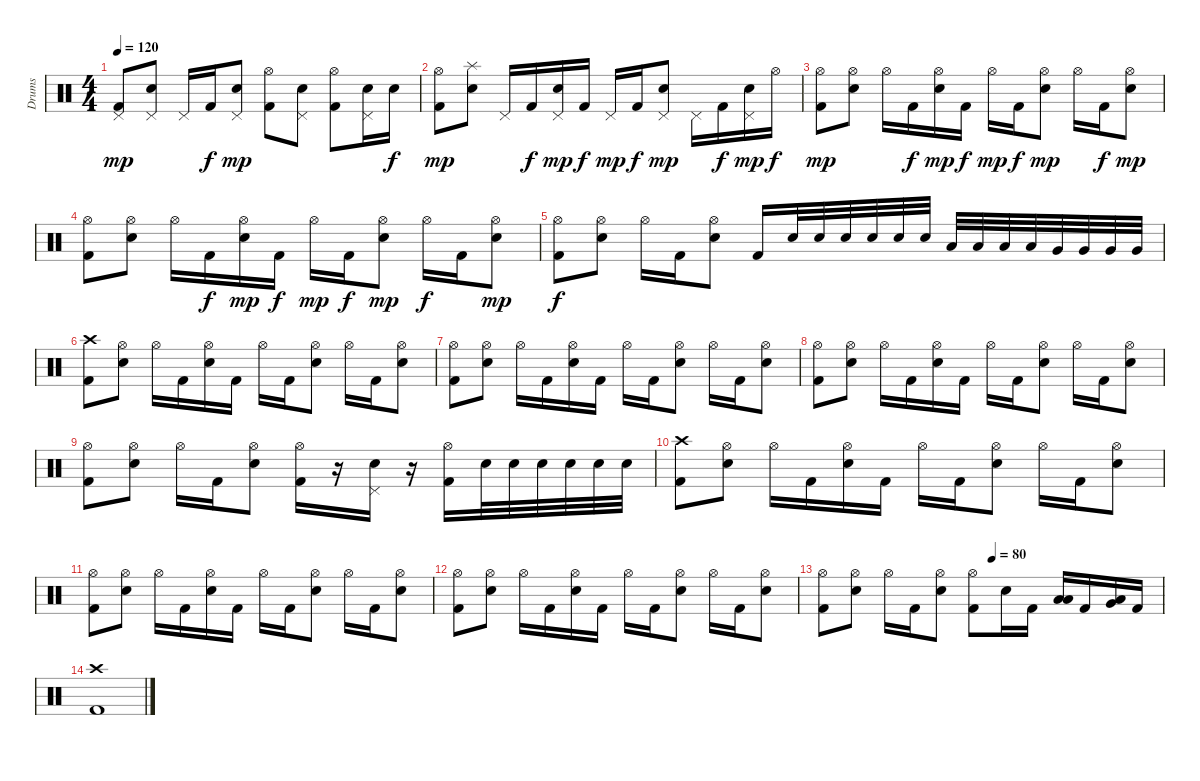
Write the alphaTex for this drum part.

\track ("Drums" "Drums") {instrument percussion}
\staff {score}
\articulation defaults
\ts (4 4)
\tempo 120
\clef neutral
\ks c
("Pedal Hi-Hat (hit)" "Kick (hit) 2").8{dy mp} ("Pedal Hi-Hat (hit)" "Electric Snare (hit)").8 "Pedal Hi-Hat (hit)".16 "Kick (hit) 2".16{dy f} ("Pedal Hi-Hat (hit)" "Electric Snare (hit)").8{dy mp} ("Hi-Hat (open)" "Kick (hit) 2").8 ("Pedal Hi-Hat (hit)" "Electric Snare (hit)").8 ("Hi-Hat (open)" "Kick (hit) 2").8 ("Pedal Hi-Hat (hit)" "Electric Snare (hit)").16 "Electric Snare (hit)".16{dy f} |
("Hi-Hat (open)" "Kick (hit) 2").8{dy mp} ("Splash (hit)" "Electric Snare (hit)").8 "Pedal Hi-Hat (hit)".16 "Kick (hit) 2".16{dy f} ("Pedal Hi-Hat (hit)" "Electric Snare (hit)").16{dy mp} "Kick (hit) 2".16{dy f} "Pedal Hi-Hat (hit)".16{dy mp} "Kick (hit) 2".16{dy f} ("Pedal Hi-Hat (hit)" "Electric Snare (hit)").8{dy mp} "Pedal Hi-Hat (hit)".16 "Kick (hit) 2".16{dy f} ("Pedal Hi-Hat (hit)" "Electric Snare (hit)").16{dy mp} "Hi-Hat (open)".16{dy f} |
("Hi-Hat (open)" "Kick (hit) 2").8{dy mp} ("Hi-Hat (open)" "Electric Snare (hit)").8 "Hi-Hat (open)".16 "Kick (hit) 2".16{dy f} ("Hi-Hat (open)" "Electric Snare (hit)").16{dy mp} "Kick (hit) 2".16{dy f} "Hi-Hat (open)".16{dy mp} "Kick (hit) 2".16{dy f} ("Hi-Hat (open)" "Electric Snare (hit)").8{dy mp} "Hi-Hat (open)".16 "Kick (hit) 2".16{dy f} ("Hi-Hat (open)" "Electric Snare (hit)").8{dy mp} |
("Hi-Hat (open)" "Kick (hit) 2").8 ("Hi-Hat (open)" "Electric Snare (hit)").8 "Hi-Hat (open)".16 "Kick (hit) 2".16{dy f} ("Hi-Hat (open)" "Electric Snare (hit)").16{dy mp} "Kick (hit) 2".16{dy f} "Hi-Hat (open)".16{dy mp} "Kick (hit) 2".16{dy f} ("Hi-Hat (open)" "Electric Snare (hit)").8{dy mp} "Hi-Hat (open)".16{dy f} "Kick (hit) 2".16 ("Hi-Hat (open)" "Electric Snare (hit)").8{dy mp} |
("Hi-Hat (open)" "Kick (hit) 2").8{dy f} ("Hi-Hat (open)" "Electric Snare (hit)").8 "Hi-Hat (open)".16 "Kick (hit) 2".16 ("Hi-Hat (open)" "Electric Snare (hit)").8 "Kick (hit) 2".16 "Electric Snare (hit)".32 "Electric Snare (hit)".32 "Electric Snare (hit)".32 "Electric Snare (hit)".32 "Electric Snare (hit)".32 "Electric Snare (hit)".32 "Low Tom (hit)".32 "Low Tom (hit)".32 "Low Tom (hit)".32 "Low Tom (hit)".32 "Very Low Tom (hit)".32 "Very Low Tom (hit)".32 "Very Low Tom (hit)".32 "Very Low Tom (hit)".32 |
("Crash high (hit)" "Kick (hit) 2").8 ("Hi-Hat (open)" "Electric Snare (hit)").8 "Hi-Hat (open)".16 "Kick (hit) 2".16 ("Hi-Hat (open)" "Electric Snare (hit)").16 "Kick (hit) 2".16 "Hi-Hat (open)".16 "Kick (hit) 2".16 ("Hi-Hat (open)" "Electric Snare (hit)").8 "Hi-Hat (open)".16 "Kick (hit) 2".16 ("Hi-Hat (open)" "Electric Snare (hit)").8 |
("Hi-Hat (open)" "Kick (hit) 2").8 ("Hi-Hat (open)" "Electric Snare (hit)").8 "Hi-Hat (open)".16 "Kick (hit) 2".16 ("Hi-Hat (open)" "Electric Snare (hit)").16 "Kick (hit) 2".16 "Hi-Hat (open)".16 "Kick (hit) 2".16 ("Hi-Hat (open)" "Electric Snare (hit)").8 "Hi-Hat (open)".16 "Kick (hit) 2".16 ("Hi-Hat (open)" "Electric Snare (hit)").8 |
("Hi-Hat (open)" "Kick (hit) 2").8 ("Hi-Hat (open)" "Electric Snare (hit)").8 "Hi-Hat (open)".16 "Kick (hit) 2".16 ("Hi-Hat (open)" "Electric Snare (hit)").16 "Kick (hit) 2".16 "Hi-Hat (open)".16 "Kick (hit) 2".16 ("Hi-Hat (open)" "Electric Snare (hit)").8 "Hi-Hat (open)".16 "Kick (hit) 2".16 ("Hi-Hat (open)" "Electric Snare (hit)").8 |
("Hi-Hat (open)" "Kick (hit) 2").8 ("Hi-Hat (open)" "Electric Snare (hit)").8 "Hi-Hat (open)".16 "Kick (hit) 2".16 ("Hi-Hat (open)" "Electric Snare (hit)").8 ("Hi-Hat (open)" "Kick (hit) 2").16 r.16 ("Pedal Hi-Hat (hit)" "Electric Snare (hit)").16 r.16 ("Hi-Hat (open)" "Kick (hit) 2").16 "Electric Snare (hit)".32 "Electric Snare (hit)".32 "Electric Snare (hit)".32 "Electric Snare (hit)".32 "Electric Snare (hit)".32 "Electric Snare (hit)".32 |
("Crash high (hit)" "Kick (hit) 2").8 ("Hi-Hat (open)" "Electric Snare (hit)").8 "Hi-Hat (open)".16 "Kick (hit) 2".16 ("Hi-Hat (open)" "Electric Snare (hit)").16 "Kick (hit) 2".16 "Hi-Hat (open)".16 "Kick (hit) 2".16 ("Hi-Hat (open)" "Electric Snare (hit)").8 "Hi-Hat (open)".16 "Kick (hit) 2".16 ("Hi-Hat (open)" "Electric Snare (hit)").8 |
("Hi-Hat (open)" "Kick (hit) 2").8 ("Hi-Hat (open)" "Electric Snare (hit)").8 "Hi-Hat (open)".16 "Kick (hit) 2".16 ("Hi-Hat (open)" "Electric Snare (hit)").16 "Kick (hit) 2".16 "Hi-Hat (open)".16 "Kick (hit) 2".16 ("Hi-Hat (open)" "Electric Snare (hit)").8 "Hi-Hat (open)".16 "Kick (hit) 2".16 ("Hi-Hat (open)" "Electric Snare (hit)").8 |
("Hi-Hat (open)" "Kick (hit) 2").8 ("Hi-Hat (open)" "Electric Snare (hit)").8 "Hi-Hat (open)".16 "Kick (hit) 2".16 ("Hi-Hat (open)" "Electric Snare (hit)").16 "Kick (hit) 2".16 "Hi-Hat (open)".16 "Kick (hit) 2".16 ("Hi-Hat (open)" "Electric Snare (hit)").8 "Hi-Hat (open)".16 "Kick (hit) 2".16 ("Hi-Hat (open)" "Electric Snare (hit)").8 |
\tempo (80 0.5)
("Hi-Hat (open)" "Kick (hit) 2").8 ("Hi-Hat (open)" "Electric Snare (hit)").8 "Hi-Hat (open)".16 "Kick (hit) 2".16 ("Hi-Hat (open)" "Electric Snare (hit)").8 ("Hi-Hat (open)" "Kick (hit) 2").8 "Electric Snare (hit)".16 "Kick (hit) 2".16 ("Low Floor Tom (hit)" "Low Tom (hit)").16 "Kick (hit) 2".16 ("Low Floor Tom (hit)" "Very Low Tom (hit)").16 "Kick (hit) 2".16 |
("Crash high (hit)" "Kick (hit) 2").1
